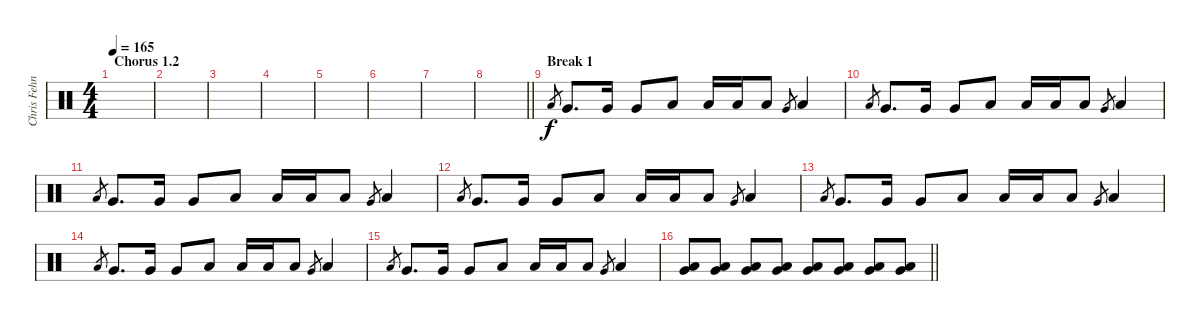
\track ("Chris Fehn" "Chris Fehn") {instrument percussion}
\staff {score}
\articulation defaults
\ts (4 4)
\section ("" "Chorus 1.2")
\tempo 165
\clef neutral
\ks c
|
|
|
|
|
|
|
\barLineRight lightlight
|
\section ("" "Break 1")
"Low Floor Tom (hit)".8{gr} "Very Low Tom (hit)".8{d} "Very Low Tom (hit)".16 "Very Low Tom (hit)".8 "Low Floor Tom (hit)".8 "Low Floor Tom (hit)".16 "Low Floor Tom (hit)".16 "Low Floor Tom (hit)".8 "Very Low Tom (hit)".8{gr} "Low Floor Tom (hit)".4 |
"Low Floor Tom (hit)".8{gr} "Very Low Tom (hit)".8{d} "Very Low Tom (hit)".16 "Very Low Tom (hit)".8 "Low Floor Tom (hit)".8 "Low Floor Tom (hit)".16 "Low Floor Tom (hit)".16 "Low Floor Tom (hit)".8 "Very Low Tom (hit)".8{gr} "Low Floor Tom (hit)".4 |
"Low Floor Tom (hit)".8{gr} "Very Low Tom (hit)".8{d} "Very Low Tom (hit)".16 "Very Low Tom (hit)".8 "Low Floor Tom (hit)".8 "Low Floor Tom (hit)".16 "Low Floor Tom (hit)".16 "Low Floor Tom (hit)".8 "Very Low Tom (hit)".8{gr} "Low Floor Tom (hit)".4 |
"Low Floor Tom (hit)".8{gr} "Very Low Tom (hit)".8{d} "Very Low Tom (hit)".16 "Very Low Tom (hit)".8 "Low Floor Tom (hit)".8 "Low Floor Tom (hit)".16 "Low Floor Tom (hit)".16 "Low Floor Tom (hit)".8 "Very Low Tom (hit)".8{gr} "Low Floor Tom (hit)".4 |
"Low Floor Tom (hit)".8{gr} "Very Low Tom (hit)".8{d} "Very Low Tom (hit)".16 "Very Low Tom (hit)".8 "Low Floor Tom (hit)".8 "Low Floor Tom (hit)".16 "Low Floor Tom (hit)".16 "Low Floor Tom (hit)".8 "Very Low Tom (hit)".8{gr} "Low Floor Tom (hit)".4 |
"Low Floor Tom (hit)".8{gr} "Very Low Tom (hit)".8{d} "Very Low Tom (hit)".16 "Very Low Tom (hit)".8 "Low Floor Tom (hit)".8 "Low Floor Tom (hit)".16 "Low Floor Tom (hit)".16 "Low Floor Tom (hit)".8 "Very Low Tom (hit)".8{gr} "Low Floor Tom (hit)".4 |
"Low Floor Tom (hit)".8{gr} "Very Low Tom (hit)".8{d} "Very Low Tom (hit)".16 "Very Low Tom (hit)".8 "Low Floor Tom (hit)".8 "Low Floor Tom (hit)".16 "Low Floor Tom (hit)".16 "Low Floor Tom (hit)".8 "Very Low Tom (hit)".8{gr} "Low Floor Tom (hit)".4 |
\barLineRight lightlight
("Very Low Tom (hit)" "Low Floor Tom (hit)").8 ("Very Low Tom (hit)" "Low Floor Tom (hit)").8 ("Very Low Tom (hit)" "Low Floor Tom (hit)").8 ("Very Low Tom (hit)" "Low Floor Tom (hit)").8 ("Very Low Tom (hit)" "Low Floor Tom (hit)").8 ("Very Low Tom (hit)" "Low Floor Tom (hit)").8 ("Very Low Tom (hit)" "Low Floor Tom (hit)").8 ("Very Low Tom (hit)" "Low Floor Tom (hit)").8
